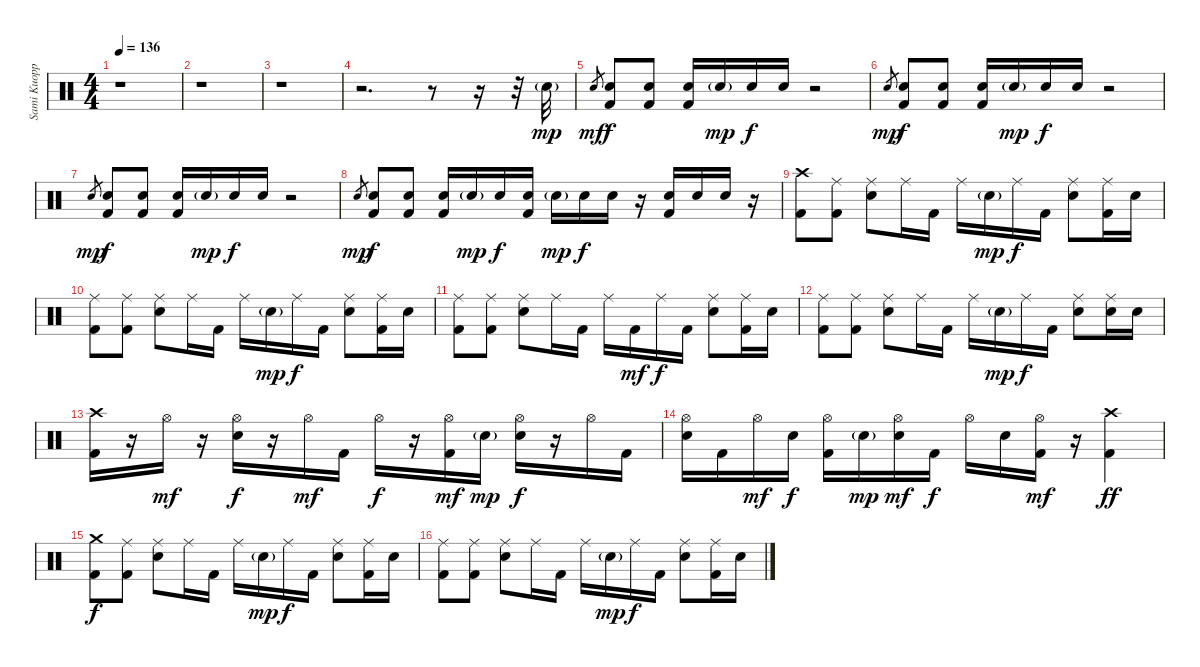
\track ("Sami Kuoppamäki - Drums" "Sami Kuopp") {instrument percussion}
\staff {score}
\articulation defaults
\ts (4 4)
\tempo 136
\clef neutral
\ks c
r.1{dy mp} |
r.1 |
r.1 |
r.2{d} r.8 r.16 r.32 "Snare (hit) 2"{g}.32 |
"Snare (hit) 2".8{gr dy mf} ("Snare (hit) 2" "Kick (hit) 2").8{dy f} ("Snare (hit) 2" "Kick (hit) 2").8 ("Snare (hit) 2" "Kick (hit) 2").16 "Snare (hit) 2"{g}.16{dy mp} "Snare (hit) 2".16{dy f} "Snare (hit) 2".16 r.2 |
"Snare (hit) 2".8{gr dy mp} ("Snare (hit) 2" "Kick (hit) 2").8{dy f} ("Snare (hit) 2" "Kick (hit) 2").8 ("Snare (hit) 2" "Kick (hit) 2").16 "Snare (hit) 2"{g}.16{dy mp} "Snare (hit) 2".16{dy f} "Snare (hit) 2".16 r.2 |
"Snare (hit) 2".8{gr dy mp} ("Snare (hit) 2" "Kick (hit) 2").8{dy f} ("Snare (hit) 2" "Kick (hit) 2").8 ("Snare (hit) 2" "Kick (hit) 2").16 "Snare (hit) 2"{g}.16{dy mp} "Snare (hit) 2".16{dy f} "Snare (hit) 2".16 r.2 |
"Snare (hit) 2".8{gr dy mp} ("Snare (hit) 2" "Kick (hit) 2").8{dy f} ("Snare (hit) 2" "Kick (hit) 2").8 ("Snare (hit) 2" "Kick (hit) 2").16 "Snare (hit) 2"{g}.16{dy mp} "Snare (hit) 2".16{dy f} ("Snare (hit) 2" "Kick (hit) 2").16 "Snare (hit) 2"{g}.16{dy mp} "Snare (hit) 2".16{dy f} "Snare (hit) 2".16 r.16 ("Snare (hit) 2" "Kick (hit) 2").16 "Snare (hit) 2".16 "Snare (hit) 2".16 r.16 |
("Crash high (hit)" "Kick (hit) 2").8 ("Ride (middle)" "Kick (hit) 2").8 ("Ride (middle)" "Snare (hit) 2").8 "Ride (middle)".16 "Kick (hit) 2".16 "Ride (middle)".16 "Snare (hit) 2"{g}.16{dy mp} "Ride (middle)".16{dy f} "Kick (hit) 2".16 ("Ride (middle)" "Snare (hit) 2").8 ("Ride (middle)" "Kick (hit) 2").16 "Snare (hit) 2".16 |
("Ride (middle)" "Kick (hit) 2").8 ("Ride (middle)" "Kick (hit) 2").8 ("Ride (middle)" "Snare (hit) 2").8 "Ride (middle)".16 "Kick (hit) 2".16 "Ride (middle)".16 "Snare (hit) 2"{g}.16{dy mp} "Ride (middle)".16{dy f} "Kick (hit) 2".16 ("Ride (middle)" "Snare (hit) 2").8 ("Ride (middle)" "Kick (hit) 2").16 "Snare (hit) 2".16 |
("Ride (middle)" "Kick (hit) 2").8 ("Ride (middle)" "Kick (hit) 2").8 ("Ride (middle)" "Snare (hit) 2").8 "Ride (middle)".16 "Kick (hit) 2".16 "Ride (middle)".16 "Kick (hit) 2".16{dy mf} "Ride (middle)".16{dy f} "Kick (hit) 2".16 ("Ride (middle)" "Snare (hit) 2").8 ("Ride (middle)" "Kick (hit) 2").16 "Snare (hit) 2".16 |
("Ride (middle)" "Kick (hit) 2").8 ("Ride (middle)" "Kick (hit) 2").8 ("Ride (middle)" "Snare (hit) 2").8 "Ride (middle)".16 "Kick (hit) 2".16 "Ride (middle)".16 "Snare (hit) 2"{g}.16{dy mp} "Ride (middle)".16{dy f} "Kick (hit) 2".16 ("Ride (middle)" "Snare (hit) 2").8 ("Ride (middle)" "Snare (hit) 2").16 "Snare (hit) 2".16 |
("Crash high (hit)" "Kick (hit) 2").16 r.16 "Hi-Hat (open)".16{dy mf} r.16 ("Hi-Hat (open)" "Snare (hit) 2").16{dy f} r.16 "Hi-Hat (open)".16{dy mf} "Kick (hit) 2".16 "Hi-Hat (open)".16{dy f} r.16 ("Hi-Hat (open)" "Kick (hit) 2").16{dy mf} "Snare (hit) 2"{g}.16{dy mp} ("Hi-Hat (open)" "Snare (hit) 2").16{dy f} r.16 "Hi-Hat (open)".16 "Kick (hit) 2".16 |
("Hi-Hat (open)" "Snare (hit) 2").16 "Kick (hit) 2".16 "Hi-Hat (open)".16{dy mf} "Snare (hit) 2".16{dy f} ("Hi-Hat (open)" "Kick (hit) 2").16 "Snare (hit) 2"{g}.16{dy mp} ("Hi-Hat (open)" "Snare (hit) 2").16{dy mf} "Kick (hit) 2".16{dy f} "Hi-Hat (open)".16 "Snare (hit) 2".16 ("Hi-Hat (open)" "Kick (hit) 2").16{dy mf} r.16 ("Crash high (hit)" "Kick (hit) 2").4{dy ff} |
("Crash medium (hit)" "Kick (hit) 2").8{dy f} ("Ride (middle)" "Kick (hit) 2").8 ("Ride (middle)" "Snare (hit) 2").8 "Ride (middle)".16 "Kick (hit) 2".16 "Ride (middle)".16 "Snare (hit) 2"{g}.16{dy mp} "Ride (middle)".16{dy f} "Kick (hit) 2".16 ("Ride (middle)" "Snare (hit) 2").8 ("Ride (middle)" "Kick (hit) 2").16 "Snare (hit) 2".16 |
("Ride (middle)" "Kick (hit) 2").8 ("Ride (middle)" "Kick (hit) 2").8 ("Ride (middle)" "Snare (hit) 2").8 "Ride (middle)".16 "Kick (hit) 2".16 "Ride (middle)".16 "Snare (hit) 2"{g}.16{dy mp} "Ride (middle)".16{dy f} "Kick (hit) 2".16 ("Ride (middle)" "Snare (hit) 2").8 ("Ride (middle)" "Kick (hit) 2").16 "Snare (hit) 2".16
